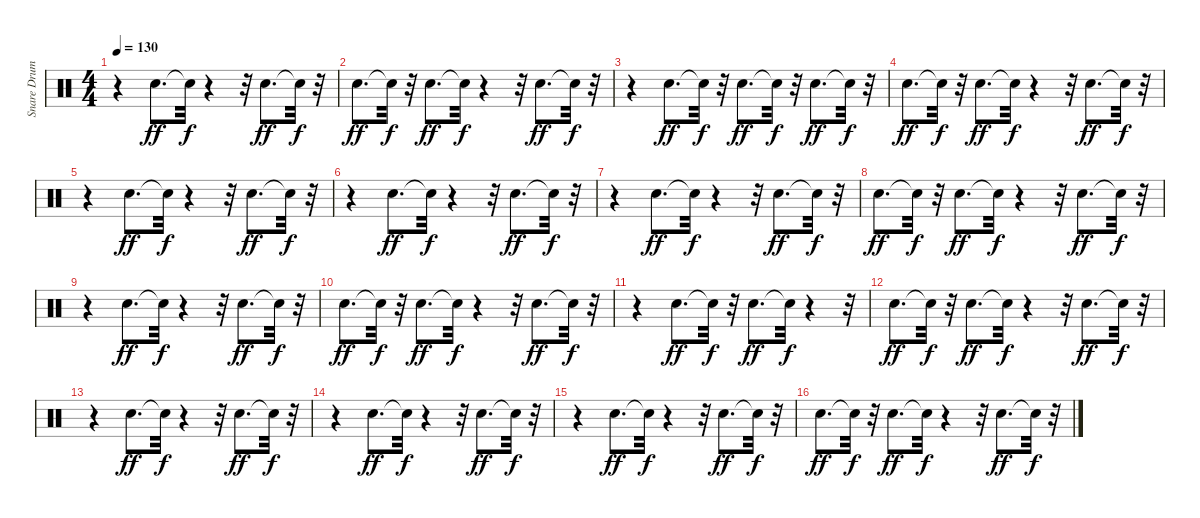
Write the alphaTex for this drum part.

\track ("Snare Drum" "Snare Drum") {instrument percussion}
\staff {score}
\articulation defaults
\ts (4 4)
\tempo 130
\clef neutral
\ks c
r.4{dy f} "Snare (hit) 2".8{d dy ff} "Snare (hit)"{t}.32{dy f} r.4 r.32 "Snare (hit) 2".8{d dy ff} "Snare (hit)"{t}.32{dy f} r.32 |
"Snare (hit) 2".8{d dy ff} "Snare (hit)"{t}.32{dy f} r.32 "Snare (hit) 2".8{d dy ff} "Snare (hit)"{t}.32{dy f} r.4 r.32 "Snare (hit) 2".8{d dy ff} "Snare (hit)"{t}.32{dy f} r.32 |
r.4 "Snare (hit) 2".8{d dy ff} "Snare (hit)"{t}.32{dy f} r.32 "Snare (hit) 2".8{d dy ff} "Snare (hit)"{t}.32{dy f} r.32 "Snare (hit) 2".8{d dy ff} "Snare (hit)"{t}.32{dy f} r.32 |
"Snare (hit) 2".8{d dy ff} "Snare (hit)"{t}.32{dy f} r.32 "Snare (hit) 2".8{d dy ff} "Snare (hit)"{t}.32{dy f} r.4 r.32 "Snare (hit) 2".8{d dy ff} "Snare (hit)"{t}.32{dy f} r.32 |
r.4 "Snare (hit) 2".8{d dy ff} "Snare (hit)"{t}.32{dy f} r.4 r.32 "Snare (hit) 2".8{d dy ff} "Snare (hit)"{t}.32{dy f} r.32 |
r.4 "Snare (hit) 2".8{d dy ff} "Snare (hit)"{t}.32{dy f} r.4 r.32 "Snare (hit) 2".8{d dy ff} "Snare (hit)"{t}.32{dy f} r.32 |
r.4 "Snare (hit) 2".8{d dy ff} "Snare (hit)"{t}.32{dy f} r.4 r.32 "Snare (hit) 2".8{d dy ff} "Snare (hit)"{t}.32{dy f} r.32 |
"Snare (hit) 2".8{d dy ff} "Snare (hit)"{t}.32{dy f} r.32 "Snare (hit) 2".8{d dy ff} "Snare (hit)"{t}.32{dy f} r.4 r.32 "Snare (hit) 2".8{d dy ff} "Snare (hit)"{t}.32{dy f} r.32 |
r.4 "Snare (hit) 2".8{d dy ff} "Snare (hit)"{t}.32{dy f} r.4 r.32 "Snare (hit) 2".8{d dy ff} "Snare (hit)"{t}.32{dy f} r.32 |
"Snare (hit) 2".8{d dy ff} "Snare (hit)"{t}.32{dy f} r.32 "Snare (hit) 2".8{d dy ff} "Snare (hit)"{t}.32{dy f} r.4 r.32 "Snare (hit) 2".8{d dy ff} "Snare (hit)"{t}.32{dy f} r.32 |
r.4 "Snare (hit) 2".8{d dy ff} "Snare (hit)"{t}.32{dy f} r.32 "Snare (hit) 2".8{d dy ff} "Snare (hit)"{t}.32{dy f} r.4 r.32 |
"Snare (hit) 2".8{d dy ff} "Snare (hit)"{t}.32{dy f} r.32 "Snare (hit) 2".8{d dy ff} "Snare (hit)"{t}.32{dy f} r.4 r.32 "Snare (hit) 2".8{d dy ff} "Snare (hit)"{t}.32{dy f} r.32 |
r.4 "Snare (hit) 2".8{d dy ff} "Snare (hit)"{t}.32{dy f} r.4 r.32 "Snare (hit) 2".8{d dy ff} "Snare (hit)"{t}.32{dy f} r.32 |
r.4 "Snare (hit) 2".8{d dy ff} "Snare (hit)"{t}.32{dy f} r.4 r.32 "Snare (hit) 2".8{d dy ff} "Snare (hit)"{t}.32{dy f} r.32 |
r.4 "Snare (hit) 2".8{d dy ff} "Snare (hit)"{t}.32{dy f} r.4 r.32 "Snare (hit) 2".8{d dy ff} "Snare (hit)"{t}.32{dy f} r.32 |
"Snare (hit) 2".8{d dy ff} "Snare (hit)"{t}.32{dy f} r.32 "Snare (hit) 2".8{d dy ff} "Snare (hit)"{t}.32{dy f} r.4 r.32 "Snare (hit) 2".8{d dy ff} "Snare (hit)"{t}.32{dy f} r.32
